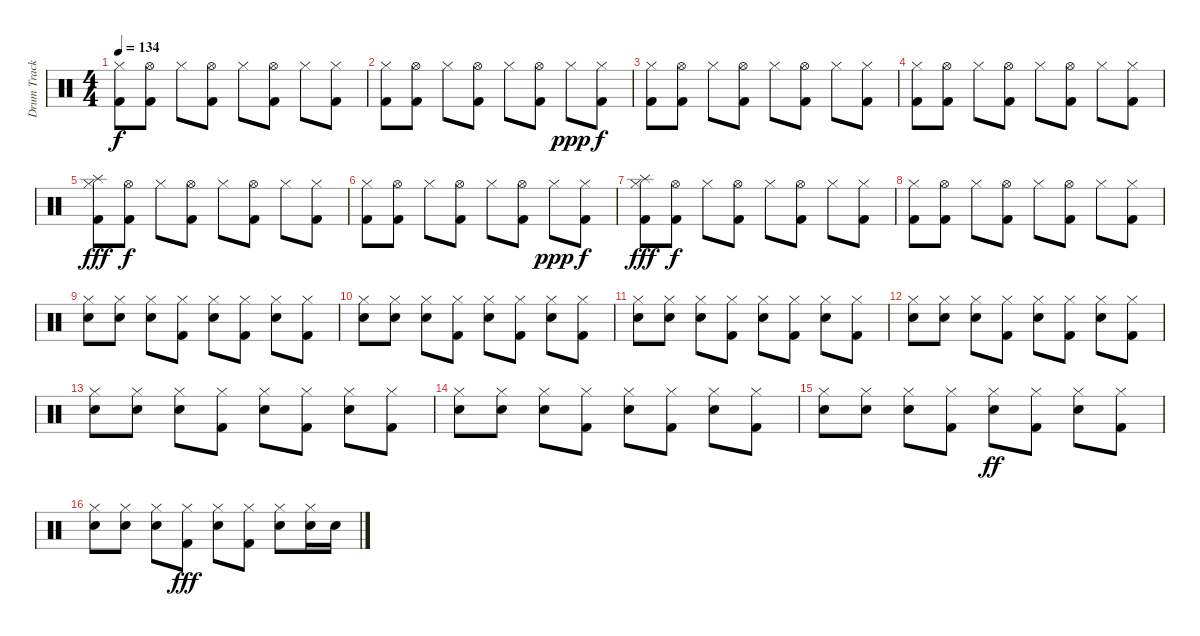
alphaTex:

\track ("Drum Track" "Drum Track") {instrument percussion}
\staff {score}
\articulation defaults
\ts (4 4)
\tempo 134
\clef neutral
\ks c
("Kick (hit) 2" "Hi-Hat (closed)").8{dy f} ("Kick (hit) 2" "Hi-Hat (open)").8 "Hi-Hat (closed)".8 ("Kick (hit) 2" "Hi-Hat (open)").8 "Hi-Hat (closed)".8 ("Kick (hit) 2" "Hi-Hat (open)").8 "Hi-Hat (closed)".8 ("Kick (hit) 2" "Hi-Hat (closed)").8 |
("Kick (hit) 2" "Hi-Hat (closed)").8 ("Kick (hit) 2" "Hi-Hat (open)").8 "Hi-Hat (closed)".8 ("Kick (hit) 2" "Hi-Hat (open)").8 "Hi-Hat (closed)".8 ("Kick (hit) 2" "Hi-Hat (open)").8 "Hi-Hat (closed)".8{dy ppp} ("Kick (hit) 2" "Hi-Hat (closed)").8{dy f} |
("Kick (hit) 2" "Hi-Hat (closed)").8 ("Kick (hit) 2" "Hi-Hat (open)").8 "Hi-Hat (closed)".8 ("Kick (hit) 2" "Hi-Hat (open)").8 "Hi-Hat (closed)".8 ("Kick (hit) 2" "Hi-Hat (open)").8 "Hi-Hat (closed)".8 ("Kick (hit) 2" "Hi-Hat (closed)").8 |
("Kick (hit) 2" "Hi-Hat (closed)").8 ("Kick (hit) 2" "Hi-Hat (open)").8 "Hi-Hat (closed)".8 ("Kick (hit) 2" "Hi-Hat (open)").8 "Hi-Hat (closed)".8 ("Kick (hit) 2" "Hi-Hat (open)").8 "Hi-Hat (closed)".8 ("Kick (hit) 2" "Hi-Hat (closed)").8 |
("Kick (hit) 2" "Splash (hit)" "Hi-Hat (closed)").8{dy fff} ("Kick (hit) 2" "Hi-Hat (open)").8{dy f} "Hi-Hat (closed)".8 ("Kick (hit) 2" "Hi-Hat (open)").8 "Hi-Hat (closed)".8 ("Kick (hit) 2" "Hi-Hat (open)").8 "Hi-Hat (closed)".8 ("Kick (hit) 2" "Hi-Hat (closed)").8 |
("Kick (hit) 2" "Hi-Hat (closed)").8 ("Kick (hit) 2" "Hi-Hat (open)").8 "Hi-Hat (closed)".8 ("Kick (hit) 2" "Hi-Hat (open)").8 "Hi-Hat (closed)".8 ("Kick (hit) 2" "Hi-Hat (open)").8 "Hi-Hat (closed)".8{dy ppp} ("Kick (hit) 2" "Hi-Hat (closed)").8{dy f} |
("Kick (hit) 2" "Splash (hit)" "Hi-Hat (closed)").8{dy fff} ("Kick (hit) 2" "Hi-Hat (open)").8{dy f} "Hi-Hat (closed)".8 ("Kick (hit) 2" "Hi-Hat (open)").8 "Hi-Hat (closed)".8 ("Kick (hit) 2" "Hi-Hat (open)").8 "Hi-Hat (closed)".8 ("Kick (hit) 2" "Hi-Hat (closed)").8 |
("Kick (hit) 2" "Hi-Hat (closed)").8 ("Kick (hit) 2" "Hi-Hat (open)").8 "Hi-Hat (closed)".8 ("Kick (hit) 2" "Hi-Hat (open)").8 "Hi-Hat (closed)".8 ("Kick (hit) 2" "Hi-Hat (open)").8 "Hi-Hat (closed)".8 ("Kick (hit) 2" "Hi-Hat (closed)").8 |
("Electric Snare (hit)" "Hi-Hat (closed)").8 ("Electric Snare (hit)" "Hi-Hat (closed)").8 ("Electric Snare (hit)" "Hi-Hat (closed)").8 ("Kick (hit) 2" "Hi-Hat (closed)").8 ("Electric Snare (hit)" "Hi-Hat (closed)").8 ("Kick (hit) 2" "Hi-Hat (closed)").8 ("Electric Snare (hit)" "Hi-Hat (closed)").8 ("Kick (hit) 2" "Hi-Hat (closed)").8 |
("Electric Snare (hit)" "Hi-Hat (closed)").8 ("Electric Snare (hit)" "Hi-Hat (closed)").8 ("Electric Snare (hit)" "Hi-Hat (closed)").8 ("Kick (hit) 2" "Hi-Hat (closed)").8 ("Electric Snare (hit)" "Hi-Hat (closed)").8 ("Kick (hit) 2" "Hi-Hat (closed)").8 ("Electric Snare (hit)" "Hi-Hat (closed)").8 ("Kick (hit) 2" "Hi-Hat (closed)").8 |
("Electric Snare (hit)" "Hi-Hat (closed)").8 ("Electric Snare (hit)" "Hi-Hat (closed)").8 ("Electric Snare (hit)" "Hi-Hat (closed)").8 ("Kick (hit) 2" "Hi-Hat (closed)").8 ("Electric Snare (hit)" "Hi-Hat (closed)").8 ("Kick (hit) 2" "Hi-Hat (closed)").8 ("Electric Snare (hit)" "Hi-Hat (closed)").8 ("Kick (hit) 2" "Hi-Hat (closed)").8 |
("Electric Snare (hit)" "Hi-Hat (closed)").8 ("Electric Snare (hit)" "Hi-Hat (closed)").8 ("Electric Snare (hit)" "Hi-Hat (closed)").8 ("Kick (hit) 2" "Hi-Hat (closed)").8 ("Electric Snare (hit)" "Hi-Hat (closed)").8 ("Kick (hit) 2" "Hi-Hat (closed)").8 ("Electric Snare (hit)" "Hi-Hat (closed)").8 ("Kick (hit) 2" "Hi-Hat (closed)").8 |
("Electric Snare (hit)" "Hi-Hat (closed)").8 ("Electric Snare (hit)" "Hi-Hat (closed)").8 ("Electric Snare (hit)" "Hi-Hat (closed)").8 ("Kick (hit) 2" "Hi-Hat (closed)").8 ("Electric Snare (hit)" "Hi-Hat (closed)").8 ("Kick (hit) 2" "Hi-Hat (closed)").8 ("Electric Snare (hit)" "Hi-Hat (closed)").8 ("Kick (hit) 2" "Hi-Hat (closed)").8 |
("Electric Snare (hit)" "Hi-Hat (closed)").8 ("Electric Snare (hit)" "Hi-Hat (closed)").8 ("Electric Snare (hit)" "Hi-Hat (closed)").8 ("Kick (hit) 2" "Hi-Hat (closed)").8 ("Electric Snare (hit)" "Hi-Hat (closed)").8 ("Kick (hit) 2" "Hi-Hat (closed)").8 ("Electric Snare (hit)" "Hi-Hat (closed)").8 ("Kick (hit) 2" "Hi-Hat (closed)").8 |
("Electric Snare (hit)" "Hi-Hat (closed)").8 ("Electric Snare (hit)" "Hi-Hat (closed)").8 ("Electric Snare (hit)" "Hi-Hat (closed)").8 ("Kick (hit) 2" "Hi-Hat (closed)").8 ("Electric Snare (hit)" "Hi-Hat (closed)").8{dy ff} ("Kick (hit) 2" "Hi-Hat (closed)").8 ("Electric Snare (hit)" "Hi-Hat (closed)").8 ("Kick (hit) 2" "Hi-Hat (closed)").8 |
("Electric Snare (hit)" "Hi-Hat (closed)").8 ("Electric Snare (hit)" "Hi-Hat (closed)").8 ("Electric Snare (hit)" "Hi-Hat (closed)").8 ("Kick (hit) 2" "Hi-Hat (closed)").8{dy fff} ("Electric Snare (hit)" "Hi-Hat (closed)").8 ("Kick (hit) 2" "Hi-Hat (closed)").8 ("Electric Snare (hit)" "Hi-Hat (closed)").8 ("Electric Snare (hit)" "Hi-Hat (closed)").16 "Electric Snare (hit)".16
